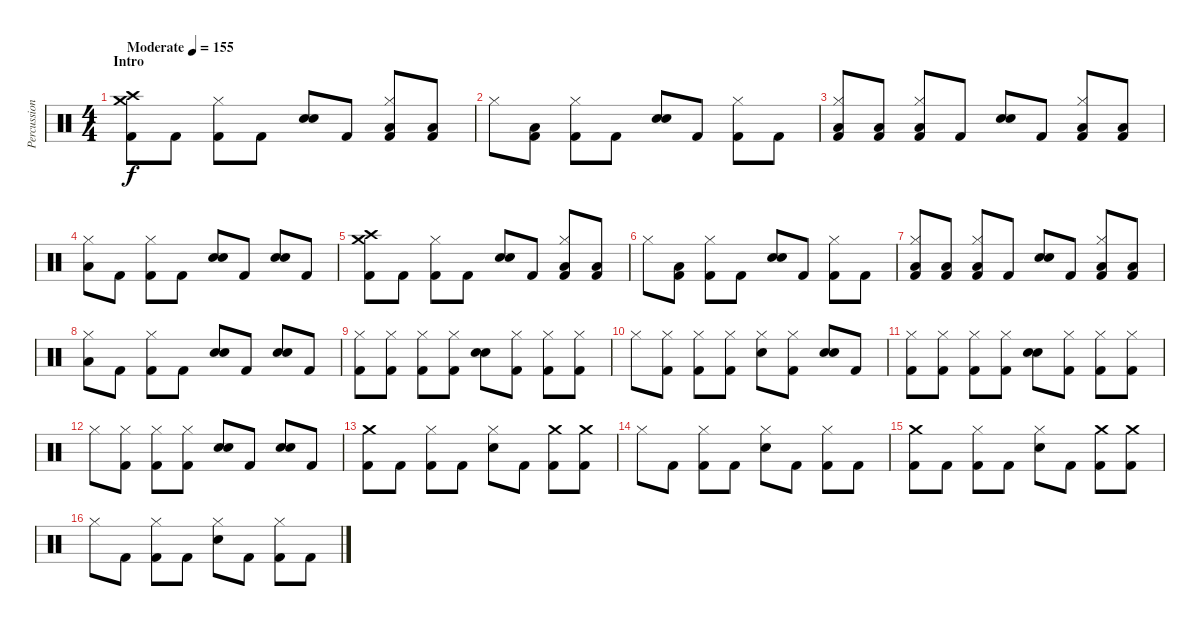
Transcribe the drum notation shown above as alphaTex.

\track ("Percussion" "Percussion") {instrument percussion}
\staff {score}
\articulation defaults
\ts (4 4)
\section ("" "Intro")
\tempo (155 "Moderate")
\clef neutral
\ks c
("Crash high (hit)" "Crash medium (hit)" "Kick (hit) 2").8{dy f} "Kick (hit) 2".8 ("Hi-Hat (closed)" "Kick (hit) 2").8 "Kick (hit) 2".8 ("Snare (hit) 2" "Electric Snare (hit)").8 "Kick (hit) 2".8 ("Hi-Hat (closed)" "Low Floor Tom (hit)" "Kick (hit) 2").8 ("Low Floor Tom (hit)" "Kick (hit) 2").8 |
"Hi-Hat (closed)".8 ("Low Floor Tom (hit)" "Kick (hit) 2").8 ("Hi-Hat (closed)" "Kick (hit) 2").8 "Kick (hit) 2".8 ("Snare (hit) 2" "Electric Snare (hit)").8 "Kick (hit) 2".8 ("Hi-Hat (closed)" "Kick (hit) 2").8 "Kick (hit) 2".8 |
("Hi-Hat (closed)" "Low Floor Tom (hit)" "Kick (hit) 2").8 ("Low Floor Tom (hit)" "Kick (hit) 2").8 ("Hi-Hat (closed)" "Low Floor Tom (hit)" "Kick (hit) 2").8 "Kick (hit) 2".8 ("Snare (hit) 2" "Electric Snare (hit)").8 "Kick (hit) 2".8 ("Hi-Hat (closed)" "Low Floor Tom (hit)" "Kick (hit) 2").8 ("Low Floor Tom (hit)" "Kick (hit) 2").8 |
("Hi-Hat (closed)" "Low Floor Tom (hit)").8 "Kick (hit) 2".8 ("Hi-Hat (closed)" "Kick (hit) 2").8 "Kick (hit) 2".8 ("Snare (hit) 2" "Electric Snare (hit)").8 "Kick (hit) 2".8 ("Snare (hit) 2" "Electric Snare (hit)").8 "Kick (hit) 2".8 |
("Crash high (hit)" "Crash medium (hit)" "Kick (hit) 2").8 "Kick (hit) 2".8 ("Hi-Hat (closed)" "Kick (hit) 2").8 "Kick (hit) 2".8 ("Snare (hit) 2" "Electric Snare (hit)").8 "Kick (hit) 2".8 ("Hi-Hat (closed)" "Low Floor Tom (hit)" "Kick (hit) 2").8 ("Low Floor Tom (hit)" "Kick (hit) 2").8 |
"Hi-Hat (closed)".8 ("Low Floor Tom (hit)" "Kick (hit) 2").8 ("Hi-Hat (closed)" "Kick (hit) 2").8 "Kick (hit) 2".8 ("Snare (hit) 2" "Electric Snare (hit)").8 "Kick (hit) 2".8 ("Hi-Hat (closed)" "Kick (hit) 2").8 "Kick (hit) 2".8 |
("Hi-Hat (closed)" "Low Floor Tom (hit)" "Kick (hit) 2").8 ("Low Floor Tom (hit)" "Kick (hit) 2").8 ("Hi-Hat (closed)" "Low Floor Tom (hit)" "Kick (hit) 2").8 "Kick (hit) 2".8 ("Snare (hit) 2" "Electric Snare (hit)").8 "Kick (hit) 2".8 ("Hi-Hat (closed)" "Low Floor Tom (hit)" "Kick (hit) 2").8 ("Low Floor Tom (hit)" "Kick (hit) 2").8 |
("Hi-Hat (closed)" "Low Floor Tom (hit)").8 "Kick (hit) 2".8 ("Hi-Hat (closed)" "Kick (hit) 2").8 "Kick (hit) 2".8 ("Snare (hit) 2" "Electric Snare (hit)").8 "Kick (hit) 2".8 ("Snare (hit) 2" "Electric Snare (hit)").8 "Kick (hit) 2".8 |
("Hi-Hat (closed)" "Kick (hit) 2").8 ("Hi-Hat (closed)" "Kick (hit) 2").8 ("Hi-Hat (closed)" "Kick (hit) 2").8 ("Hi-Hat (closed)" "Kick (hit) 2").8 ("Snare (hit) 2" "Electric Snare (hit)").8 ("Hi-Hat (closed)" "Kick (hit) 2").8 ("Hi-Hat (closed)" "Kick (hit) 2").8 ("Hi-Hat (closed)" "Kick (hit) 2").8 |
"Hi-Hat (closed)".8 ("Hi-Hat (closed)" "Kick (hit) 2").8 ("Hi-Hat (closed)" "Kick (hit) 2").8 ("Hi-Hat (closed)" "Kick (hit) 2").8 ("Hi-Hat (closed)" "Electric Snare (hit)").8 ("Hi-Hat (closed)" "Kick (hit) 2").8 ("Snare (hit) 2" "Electric Snare (hit)").8 "Kick (hit) 2".8 |
("Hi-Hat (closed)" "Kick (hit) 2").8 ("Hi-Hat (closed)" "Kick (hit) 2").8 ("Hi-Hat (closed)" "Kick (hit) 2").8 ("Hi-Hat (closed)" "Kick (hit) 2").8 ("Snare (hit) 2" "Electric Snare (hit)").8 ("Hi-Hat (closed)" "Kick (hit) 2").8 ("Hi-Hat (closed)" "Kick (hit) 2").8 ("Hi-Hat (closed)" "Kick (hit) 2").8 |
"Hi-Hat (closed)".8 ("Hi-Hat (closed)" "Kick (hit) 2").8 ("Hi-Hat (closed)" "Kick (hit) 2").8 ("Hi-Hat (closed)" "Kick (hit) 2").8 ("Snare (hit) 2" "Electric Snare (hit)").8 "Kick (hit) 2".8 ("Snare (hit) 2" "Electric Snare (hit)").8 "Kick (hit) 2".8 |
("Crash medium (hit)" "Kick (hit) 2").8 "Kick (hit) 2".8 ("Hi-Hat (closed)" "Kick (hit) 2").8 "Kick (hit) 2".8 ("Hi-Hat (closed)" "Electric Snare (hit)").8 "Kick (hit) 2".8 ("Crash medium (hit)" "Kick (hit) 2").8 ("Crash medium (hit)" "Kick (hit) 2").8 |
"Hi-Hat (closed)".8 "Kick (hit) 2".8 ("Hi-Hat (closed)" "Kick (hit) 2").8 "Kick (hit) 2".8 ("Hi-Hat (closed)" "Electric Snare (hit)").8 "Kick (hit) 2".8 ("Hi-Hat (closed)" "Kick (hit) 2").8 "Kick (hit) 2".8 |
("Crash medium (hit)" "Kick (hit) 2").8 "Kick (hit) 2".8 ("Hi-Hat (closed)" "Kick (hit) 2").8 "Kick (hit) 2".8 ("Hi-Hat (closed)" "Electric Snare (hit)").8 "Kick (hit) 2".8 ("Crash medium (hit)" "Kick (hit) 2").8 ("Crash medium (hit)" "Kick (hit) 2").8 |
"Hi-Hat (closed)".8 "Kick (hit) 2".8 ("Hi-Hat (closed)" "Kick (hit) 2").8 "Kick (hit) 2".8 ("Hi-Hat (closed)" "Electric Snare (hit)").8 "Kick (hit) 2".8 ("Hi-Hat (closed)" "Kick (hit) 2").8 "Kick (hit) 2".8
